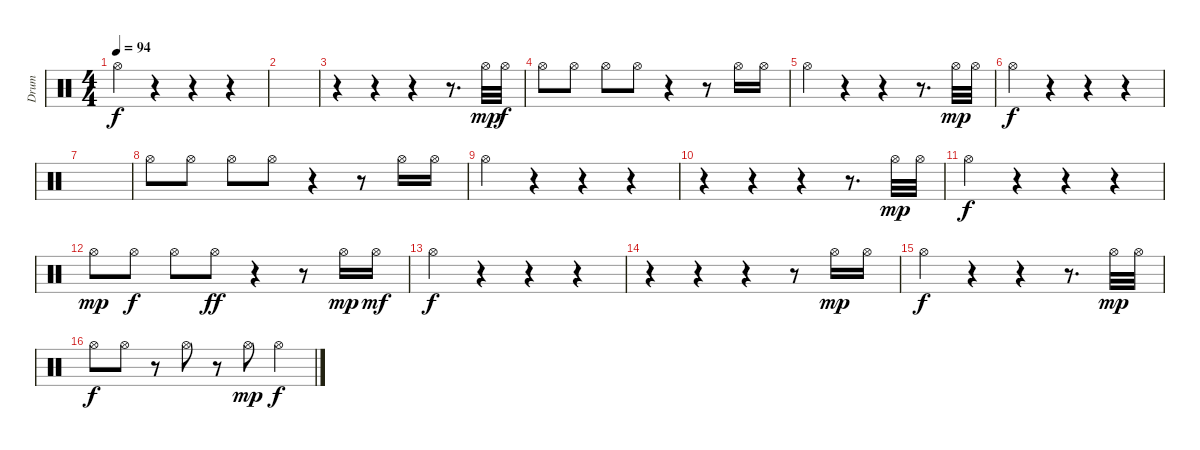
\track ("Drum" "Drum") {instrument percussion}
\staff {score}
\articulation defaults
\ts (4 4)
\tempo 94
\clef neutral
\ks c "Hi-Hat (open)".4{dy f}
r.4 r.4 r.4 |
|
r.4 r.4 r.4 r.8{d} "Hi-Hat (open)".32{dy mp} "Hi-Hat (open)".32{dy f} |
"Hi-Hat (open)".8 "Hi-Hat (open)".8 "Hi-Hat (open)".8 "Hi-Hat (open)".8 r.4 r.8 "Hi-Hat (open)".16 "Hi-Hat (open)".16 |
"Hi-Hat (open)".4 r.4 r.4 r.8{d} "Hi-Hat (open)".32{dy mp} "Hi-Hat (open)".32 |
"Hi-Hat (open)".4{dy f} r.4 r.4 r.4 |
|
"Hi-Hat (open)".8 "Hi-Hat (open)".8 "Hi-Hat (open)".8 "Hi-Hat (open)".8 r.4 r.8 "Hi-Hat (open)".16 "Hi-Hat (open)".16 |
"Hi-Hat (open)".4 r.4 r.4 r.4 |
r.4 r.4 r.4 r.8{d} "Hi-Hat (open)".32{dy mp} "Hi-Hat (open)".32 |
"Hi-Hat (open)".4{dy f} r.4 r.4 r.4 |
"Hi-Hat (open)".8{dy mp} "Hi-Hat (open)".8{dy f} "Hi-Hat (open)".8 "Hi-Hat (open)".8{dy ff} r.4 r.8 "Hi-Hat (open)".16{dy mp} "Hi-Hat (open)".16{dy mf} |
"Hi-Hat (open)".4{dy f} r.4 r.4 r.4 |
r.4 r.4 r.4 r.8 "Hi-Hat (open)".16{dy mp} "Hi-Hat (open)".16 |
"Hi-Hat (open)".4{dy f} r.4 r.4 r.8{d} "Hi-Hat (open)".32{dy mp} "Hi-Hat (open)".32 |
"Hi-Hat (open)".8{dy f} "Hi-Hat (open)".8 r.8 "Hi-Hat (open)".8 r.8 "Hi-Hat (open)".8{dy mp} "Hi-Hat (open)".4{dy f}
